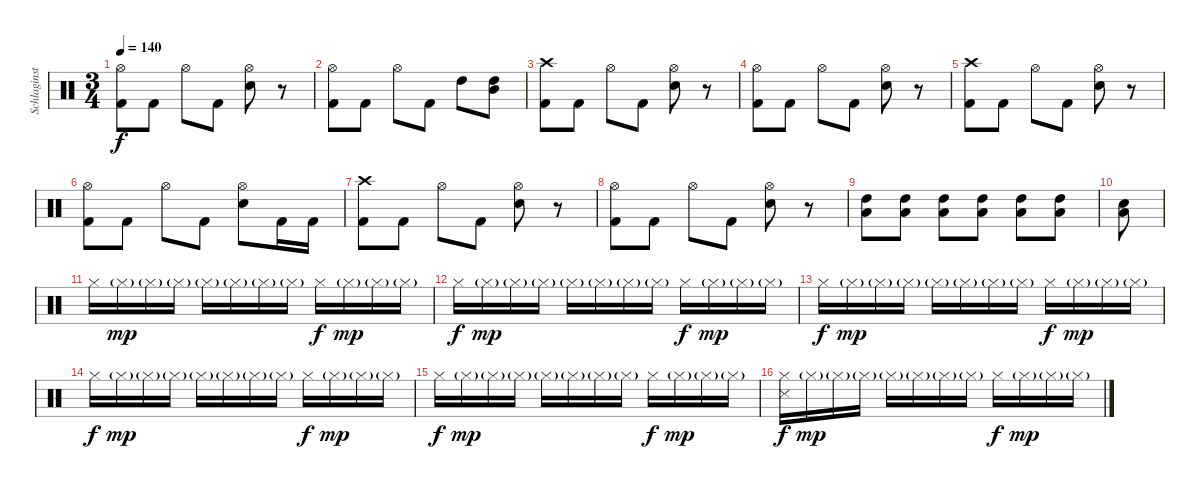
\track ("Schlaginstrumente - Auswahl" "Schlaginst") {instrument percussion}
\staff {score}
\articulation defaults
\ts (3 4)
\tempo 140
\clef neutral
\ks c
("Hi-Hat (open)" "Kick (hit) 2").8{dy f} "Kick (hit) 2".8 "Hi-Hat (open)".8 "Kick (hit) 2".8 ("Hi-Hat (open)" "Electric Snare (hit)").8 r.8 |
("Hi-Hat (open)" "Kick (hit) 2").8 "Kick (hit) 2".8 "Hi-Hat (open)".8 "Kick (hit) 2".8 "High Tom (hit)".8 ("High Tom (hit)" "Mid Tom (hit)").8 |
("Crash high (hit)" "Kick (hit) 2").8 "Kick (hit) 2".8 "Hi-Hat (open)".8 "Kick (hit) 2".8 ("Hi-Hat (open)" "Electric Snare (hit)").8 r.8 |
("Hi-Hat (open)" "Kick (hit) 2").8 "Kick (hit) 2".8 "Hi-Hat (open)".8 "Kick (hit) 2".8 ("Hi-Hat (open)" "Electric Snare (hit)").8 r.8 |
("Crash high (hit)" "Kick (hit) 2").8 "Kick (hit) 2".8 "Hi-Hat (open)".8 "Kick (hit) 2".8 ("Hi-Hat (open)" "Electric Snare (hit)").8 r.8 |
("Hi-Hat (open)" "Kick (hit) 2").8 "Kick (hit) 2".8 "Hi-Hat (open)".8 "Kick (hit) 2".8 ("Hi-Hat (open)" "Electric Snare (hit)").8 "Kick (hit) 2".16 "Kick (hit) 2".16 |
("Crash high (hit)" "Kick (hit) 2").8 "Kick (hit) 2".8 "Hi-Hat (open)".8 "Kick (hit) 2".8 ("Hi-Hat (open)" "Electric Snare (hit)").8 r.8 |
("Hi-Hat (open)" "Kick (hit) 2").8 "Kick (hit) 2".8 "Hi-Hat (open)".8 "Kick (hit) 2".8 ("Hi-Hat (open)" "Electric Snare (hit)").8 r.8 |
("High Tom (hit)" "Low Tom (hit)").8 ("High Tom (hit)" "Low Tom (hit)").8 ("High Tom (hit)" "Low Tom (hit)").8 ("High Tom (hit)" "Low Tom (hit)").8 ("High Tom (hit)" "Low Tom (hit)").8 ("High Tom (hit)" "Low Tom (hit)").8 |
("Electric Snare (hit)" "Low Tom (hit)").8 |
"Hi-Hat (closed)".16 "Hi-Hat (closed)"{g}.16{dy mp} "Hi-Hat (closed)"{g}.16 "Hi-Hat (closed)"{g}.16 "Hi-Hat (closed)"{g}.16 "Hi-Hat (closed)"{g}.16 "Hi-Hat (closed)"{g}.16 "Hi-Hat (closed)"{g}.16 "Hi-Hat (closed)".16{dy f} "Hi-Hat (closed)"{g}.16{dy mp} "Hi-Hat (closed)"{g}.16 "Hi-Hat (closed)"{g}.16 |
"Hi-Hat (closed)".16{dy f} "Hi-Hat (closed)"{g}.16{dy mp} "Hi-Hat (closed)"{g}.16 "Hi-Hat (closed)"{g}.16 "Hi-Hat (closed)"{g}.16 "Hi-Hat (closed)"{g}.16 "Hi-Hat (closed)"{g}.16 "Hi-Hat (closed)"{g}.16 "Hi-Hat (closed)".16{dy f} "Hi-Hat (closed)"{g}.16{dy mp} "Hi-Hat (closed)"{g}.16 "Hi-Hat (closed)"{g}.16 |
"Hi-Hat (closed)".16{dy f} "Hi-Hat (closed)"{g}.16{dy mp} "Hi-Hat (closed)"{g}.16 "Hi-Hat (closed)"{g}.16 "Hi-Hat (closed)"{g}.16 "Hi-Hat (closed)"{g}.16 "Hi-Hat (closed)"{g}.16 "Hi-Hat (closed)"{g}.16 "Hi-Hat (closed)".16{dy f} "Hi-Hat (closed)"{g}.16{dy mp} "Hi-Hat (closed)"{g}.16 "Hi-Hat (closed)"{g}.16 |
"Hi-Hat (closed)".16{dy f} "Hi-Hat (closed)"{g}.16{dy mp} "Hi-Hat (closed)"{g}.16 "Hi-Hat (closed)"{g}.16 "Hi-Hat (closed)"{g}.16 "Hi-Hat (closed)"{g}.16 "Hi-Hat (closed)"{g}.16 "Hi-Hat (closed)"{g}.16 "Hi-Hat (closed)".16{dy f} "Hi-Hat (closed)"{g}.16{dy mp} "Hi-Hat (closed)"{g}.16 "Hi-Hat (closed)"{g}.16 |
"Hi-Hat (closed)".16{dy f} "Hi-Hat (closed)"{g}.16{dy mp} "Hi-Hat (closed)"{g}.16 "Hi-Hat (closed)"{g}.16 "Hi-Hat (closed)"{g}.16 "Hi-Hat (closed)"{g}.16 "Hi-Hat (closed)"{g}.16 "Hi-Hat (closed)"{g}.16 "Hi-Hat (closed)".16{dy f} "Hi-Hat (closed)"{g}.16{dy mp} "Hi-Hat (closed)"{g}.16 "Hi-Hat (closed)"{g}.16 |
("Hi-Hat (closed)" "Snare (side stick) 3").16{dy f} "Hi-Hat (closed)"{g}.16{dy mp} "Hi-Hat (closed)"{g}.16 "Hi-Hat (closed)"{g}.16 "Hi-Hat (closed)"{g}.16 "Hi-Hat (closed)"{g}.16 "Hi-Hat (closed)"{g}.16 "Hi-Hat (closed)"{g}.16 "Hi-Hat (closed)".16{dy f} "Hi-Hat (closed)"{g}.16{dy mp} "Hi-Hat (closed)"{g}.16 "Hi-Hat (closed)"{g}.16
